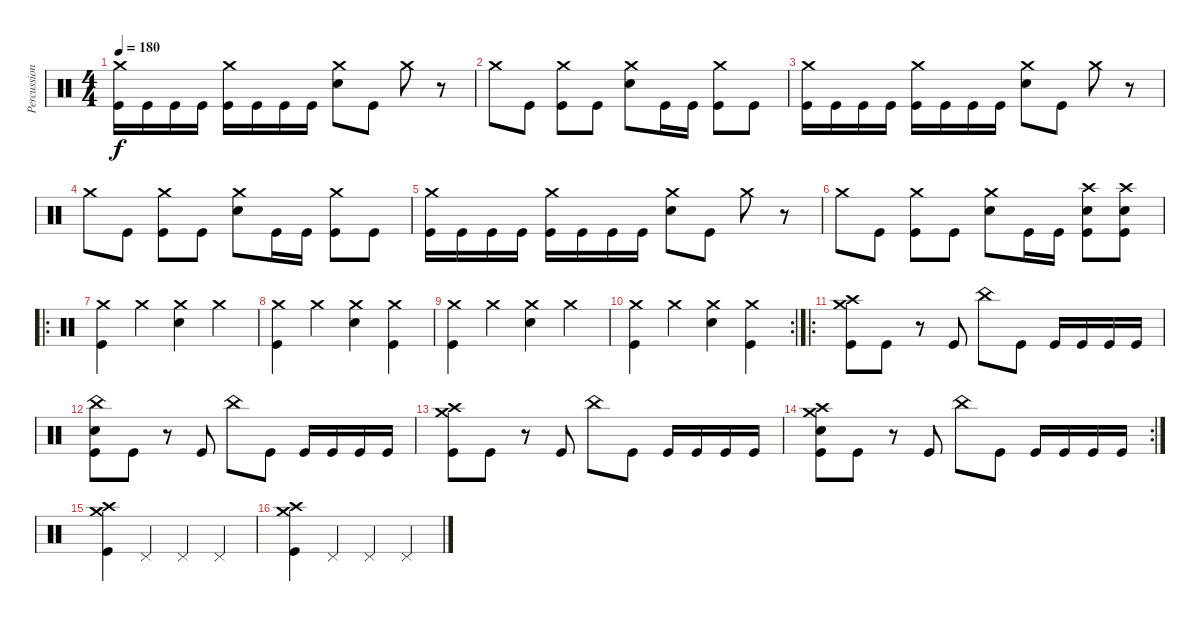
\track ("Percussion" "Percussion") {instrument percussion}
\staff {score}
\articulation defaults
\ts (4 4)
\tempo 180
\clef neutral
\ks c
("Crash medium (hit)" "Kick (hit)").16{dy f} "Kick (hit)".16 "Kick (hit)".16 "Kick (hit)".16 ("Crash medium (hit)" "Kick (hit)").16 "Kick (hit)".16 "Kick (hit)".16 "Kick (hit)".16 ("Crash medium (hit)" "Snare (hit) 2").8 "Kick (hit)".8 "Crash medium (hit)".8 r.8 |
"Crash medium (hit)".8 "Kick (hit)".8 ("Crash medium (hit)" "Kick (hit)").8 "Kick (hit)".8 ("Crash medium (hit)" "Snare (hit) 2").8 "Kick (hit)".16 "Kick (hit)".16 ("Crash medium (hit)" "Kick (hit)").8 "Kick (hit)".8 |
("Crash medium (hit)" "Kick (hit)").16 "Kick (hit)".16 "Kick (hit)".16 "Kick (hit)".16 ("Crash medium (hit)" "Kick (hit)").16 "Kick (hit)".16 "Kick (hit)".16 "Kick (hit)".16 ("Crash medium (hit)" "Snare (hit) 2").8 "Kick (hit)".8 "Crash medium (hit)".8 r.8 |
"Crash medium (hit)".8 "Kick (hit)".8 ("Crash medium (hit)" "Kick (hit)").8 "Kick (hit)".8 ("Crash medium (hit)" "Snare (hit) 2").8 "Kick (hit)".16 "Kick (hit)".16 ("Crash medium (hit)" "Kick (hit)").8 "Kick (hit)".8 |
("Crash medium (hit)" "Kick (hit)").16 "Kick (hit)".16 "Kick (hit)".16 "Kick (hit)".16 ("Crash medium (hit)" "Kick (hit)").16 "Kick (hit)".16 "Kick (hit)".16 "Kick (hit)".16 ("Crash medium (hit)" "Snare (hit) 2").8 "Kick (hit)".8 "Crash medium (hit)".8 r.8 |
"Crash medium (hit)".8 "Kick (hit)".8 ("Crash medium (hit)" "Kick (hit)").8 "Kick (hit)".8 ("Crash medium (hit)" "Snare (hit) 2").8 "Kick (hit)".16 "Kick (hit)".16 ("Crash high (hit)" "Snare (hit) 2" "Kick (hit)").8 ("Crash high (hit)" "Snare (hit) 2" "Kick (hit)").8 |
\ro
("Crash medium (hit)" "Kick (hit)").4 "Crash medium (hit)".4 ("Crash medium (hit)" "Snare (hit) 2").4 "Crash medium (hit)".4 |
("Crash medium (hit)" "Kick (hit)").4 "Crash medium (hit)".4 ("Crash medium (hit)" "Snare (hit) 2").4 ("Crash medium (hit)" "Kick (hit)").4 |
("Crash medium (hit)" "Kick (hit)").4 "Crash medium (hit)".4 ("Crash medium (hit)" "Snare (hit) 2").4 "Crash medium (hit)".4 |
\rc 2
("Crash medium (hit)" "Kick (hit)").4 "Crash medium (hit)".4 ("Crash medium (hit)" "Snare (hit) 2").4 ("Crash medium (hit)" "Kick (hit)").4 |
\ro
("Crash medium (hit)" "Crash high (hit)" "Kick (hit)").8 "Kick (hit)".8 r.8 "Kick (hit)".8 "China (hit)".8 "Kick (hit)".8 "Kick (hit)".16 "Kick (hit)".16 "Kick (hit)".16 "Kick (hit)".16 |
("China (hit)" "Snare (hit) 2" "Kick (hit)").8 "Kick (hit)".8 r.8 "Kick (hit)".8 "China (hit)".8 "Kick (hit)".8 "Kick (hit)".16 "Kick (hit)".16 "Kick (hit)".16 "Kick (hit)".16 |
("Crash medium (hit)" "Crash high (hit)" "Kick (hit)").8 "Kick (hit)".8 r.8 "Kick (hit)".8 "China (hit)".8 "Kick (hit)".8 "Kick (hit)".16 "Kick (hit)".16 "Kick (hit)".16 "Kick (hit)".16 |
\rc 2
("Crash medium (hit)" "Crash high (hit)" "Snare (hit) 2" "Kick (hit)").8 "Kick (hit)".8 r.8 "Kick (hit)".8 "China (hit)".8 "Kick (hit)".8 "Kick (hit)".16 "Kick (hit)".16 "Kick (hit)".16 "Kick (hit)".16 |
("Crash medium (hit)" "Crash high (hit)" "Kick (hit)").4 "Pedal Hi-Hat (hit)".4 "Pedal Hi-Hat (hit)".4 "Pedal Hi-Hat (hit)".4 |
("Crash medium (hit)" "Crash high (hit)" "Kick (hit)").4 "Pedal Hi-Hat (hit)".4 "Pedal Hi-Hat (hit)".4 "Pedal Hi-Hat (hit)".4
